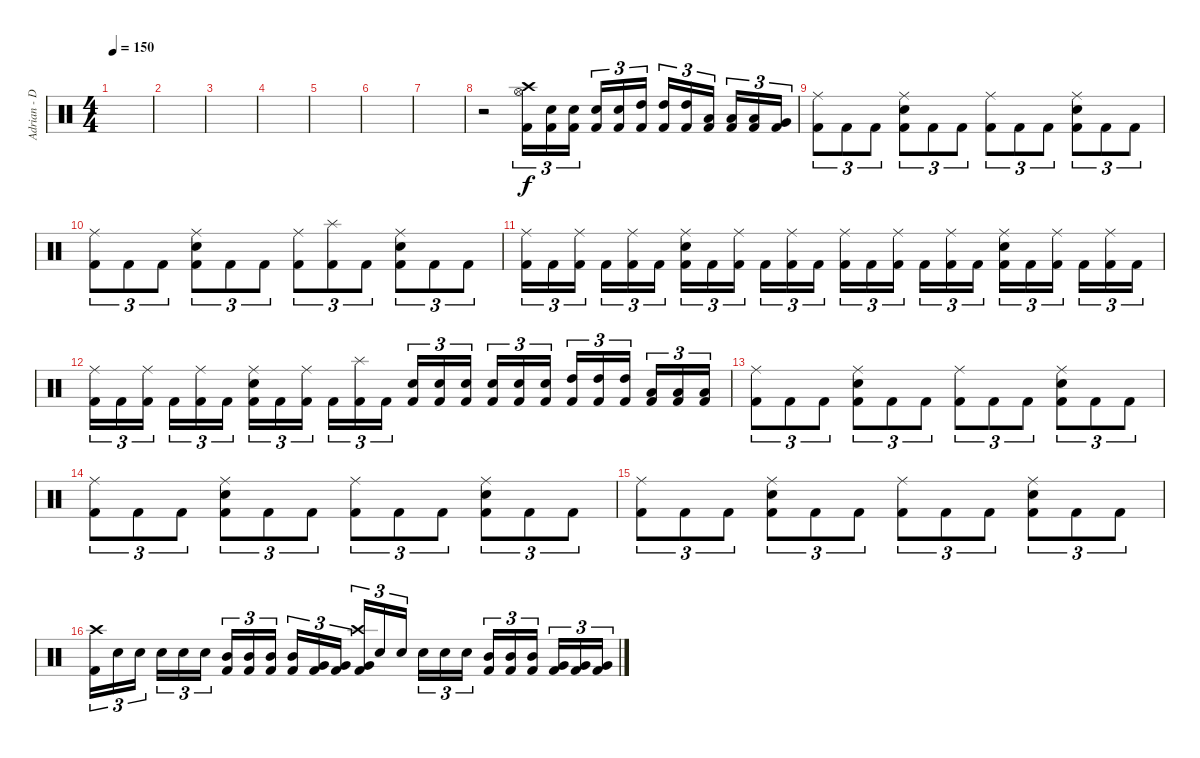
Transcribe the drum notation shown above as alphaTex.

\track ("Adrian - Drums" "Adrian - D") {instrument percussion}
\staff {score}
\articulation defaults
\ts (4 4)
\tempo 150
\clef neutral
\ks c
|
|
|
|
|
|
|
r.2 ("Kick (hit) 2" "Crash high (hit)" "Hi-Hat (open)").16{tu (3 2)} ("Kick (hit) 2" "Electric Snare (hit)").16{tu (3 2)} ("Kick (hit) 2" "Electric Snare (hit)").16{tu (3 2)} ("Kick (hit) 2" "Electric Snare (hit)").16{tu (3 2)} ("Kick (hit) 2" "Electric Snare (hit)").16{tu (3 2)} ("Kick (hit) 2" "High Tom (hit)").16{tu (3 2)} ("Kick (hit) 2" "High Tom (hit)").16{tu (3 2)} ("Kick (hit) 2" "High Tom (hit)").16{tu (3 2)} ("Kick (hit) 2" "Low Tom (hit)").16{tu (3 2)} ("Kick (hit) 2" "Low Tom (hit)").16{tu (3 2)} ("Kick (hit) 2" "Low Tom (hit)").16{tu (3 2)} ("Kick (hit) 2" "Very Low Tom (hit)").16{tu (3 2)} |
("Ride (middle)" "Kick (hit) 2").8{tu (3 2)} "Kick (hit) 2".8{tu (3 2)} "Kick (hit) 2".8{tu (3 2)} ("Ride (middle)" "Electric Snare (hit)" "Kick (hit) 2").8{tu (3 2)} "Kick (hit) 2".8{tu (3 2)} "Kick (hit) 2".8{tu (3 2)} ("Ride (middle)" "Kick (hit) 2").8{tu (3 2)} "Kick (hit) 2".8{tu (3 2)} "Kick (hit) 2".8{tu (3 2)} ("Ride (middle)" "Electric Snare (hit)" "Kick (hit) 2").8{tu (3 2)} "Kick (hit) 2".8{tu (3 2)} "Kick (hit) 2".8{tu (3 2)} |
("Ride (middle)" "Kick (hit) 2").8{tu (3 2)} "Kick (hit) 2".8{tu (3 2)} "Kick (hit) 2".8{tu (3 2)} ("Ride (middle)" "Electric Snare (hit)" "Kick (hit) 2").8{tu (3 2)} "Kick (hit) 2".8{tu (3 2)} "Kick (hit) 2".8{tu (3 2)} ("Ride (middle)" "Kick (hit) 2").8{tu (3 2)} ("Splash (hit)" "Kick (hit) 2").8{tu (3 2)} "Kick (hit) 2".8{tu (3 2)} ("Ride (middle)" "Electric Snare (hit)" "Kick (hit) 2").8{tu (3 2)} "Kick (hit) 2".8{tu (3 2)} "Kick (hit) 2".8{tu (3 2)} |
("Ride (middle)" "Kick (hit) 2").16{tu (3 2)} "Kick (hit) 2".16{tu (3 2)} ("Ride (middle)" "Kick (hit) 2").16{tu (3 2)} "Kick (hit) 2".16{tu (3 2)} ("Ride (middle)" "Kick (hit) 2").16{tu (3 2)} "Kick (hit) 2".16{tu (3 2)} ("Ride (middle)" "Electric Snare (hit)" "Kick (hit) 2").16{tu (3 2)} "Kick (hit) 2".16{tu (3 2)} ("Ride (middle)" "Kick (hit) 2").16{tu (3 2)} "Kick (hit) 2".16{tu (3 2)} ("Ride (middle)" "Kick (hit) 2").16{tu (3 2)} "Kick (hit) 2".16{tu (3 2)} ("Ride (middle)" "Kick (hit) 2").16{tu (3 2)} "Kick (hit) 2".16{tu (3 2)} ("Ride (middle)" "Kick (hit) 2").16{tu (3 2)} "Kick (hit) 2".16{tu (3 2)} ("Ride (middle)" "Kick (hit) 2").16{tu (3 2)} "Kick (hit) 2".16{tu (3 2)} ("Ride (middle)" "Electric Snare (hit)" "Kick (hit) 2").16{tu (3 2)} "Kick (hit) 2".16{tu (3 2)} ("Ride (middle)" "Kick (hit) 2").16{tu (3 2)} "Kick (hit) 2".16{tu (3 2)} ("Ride (middle)" "Kick (hit) 2").16{tu (3 2)} "Kick (hit) 2".16{tu (3 2)} |
("Ride (middle)" "Kick (hit) 2").16{tu (3 2)} "Kick (hit) 2".16{tu (3 2)} ("Ride (middle)" "Kick (hit) 2").16{tu (3 2)} "Kick (hit) 2".16{tu (3 2)} ("Ride (middle)" "Kick (hit) 2").16{tu (3 2)} "Kick (hit) 2".16{tu (3 2)} ("Ride (middle)" "Electric Snare (hit)" "Kick (hit) 2").16{tu (3 2)} "Kick (hit) 2".16{tu (3 2)} ("Ride (middle)" "Kick (hit) 2").16{tu (3 2)} "Kick (hit) 2".16{tu (3 2)} ("Splash (hit)" "Kick (hit) 2").16{tu (3 2)} "Kick (hit) 2".16{tu (3 2)} ("Electric Snare (hit)" "Kick (hit) 2").16{tu (3 2)} ("Electric Snare (hit)" "Kick (hit) 2").16{tu (3 2)} ("Electric Snare (hit)" "Kick (hit) 2").16{tu (3 2)} ("Electric Snare (hit)" "Kick (hit) 2").16{tu (3 2)} ("Electric Snare (hit)" "Kick (hit) 2").16{tu (3 2)} ("Electric Snare (hit)" "Kick (hit) 2").16{tu (3 2)} ("High Tom (hit)" "Kick (hit) 2").16{tu (3 2)} ("High Tom (hit)" "Kick (hit) 2").16{tu (3 2)} ("High Tom (hit)" "Kick (hit) 2").16{tu (3 2)} ("Low Tom (hit)" "Kick (hit) 2").16{tu (3 2)} ("Low Tom (hit)" "Kick (hit) 2").16{tu (3 2)} ("Low Tom (hit)" "Kick (hit) 2").16{tu (3 2)} |
("Ride (middle)" "Kick (hit) 2").8{tu (3 2)} "Kick (hit) 2".8{tu (3 2)} "Kick (hit) 2".8{tu (3 2)} ("Ride (middle)" "Electric Snare (hit)" "Kick (hit) 2").8{tu (3 2)} "Kick (hit) 2".8{tu (3 2)} "Kick (hit) 2".8{tu (3 2)} ("Ride (middle)" "Kick (hit) 2").8{tu (3 2)} "Kick (hit) 2".8{tu (3 2)} "Kick (hit) 2".8{tu (3 2)} ("Ride (middle)" "Electric Snare (hit)" "Kick (hit) 2").8{tu (3 2)} "Kick (hit) 2".8{tu (3 2)} "Kick (hit) 2".8{tu (3 2)} |
("Ride (middle)" "Kick (hit) 2").8{tu (3 2)} "Kick (hit) 2".8{tu (3 2)} "Kick (hit) 2".8{tu (3 2)} ("Ride (middle)" "Electric Snare (hit)" "Kick (hit) 2").8{tu (3 2)} "Kick (hit) 2".8{tu (3 2)} "Kick (hit) 2".8{tu (3 2)} ("Ride (middle)" "Kick (hit) 2").8{tu (3 2)} "Kick (hit) 2".8{tu (3 2)} "Kick (hit) 2".8{tu (3 2)} ("Ride (middle)" "Electric Snare (hit)" "Kick (hit) 2").8{tu (3 2)} "Kick (hit) 2".8{tu (3 2)} "Kick (hit) 2".8{tu (3 2)} |
("Ride (middle)" "Kick (hit) 2").8{tu (3 2)} "Kick (hit) 2".8{tu (3 2)} "Kick (hit) 2".8{tu (3 2)} ("Ride (middle)" "Electric Snare (hit)" "Kick (hit) 2").8{tu (3 2)} "Kick (hit) 2".8{tu (3 2)} "Kick (hit) 2".8{tu (3 2)} ("Ride (middle)" "Kick (hit) 2").8{tu (3 2)} "Kick (hit) 2".8{tu (3 2)} "Kick (hit) 2".8{tu (3 2)} ("Ride (middle)" "Electric Snare (hit)" "Kick (hit) 2").8{tu (3 2)} "Kick (hit) 2".8{tu (3 2)} "Kick (hit) 2".8{tu (3 2)} |
("Crash high (hit)" "Kick (hit) 2").16{tu (3 2)} "Electric Snare (hit)".16{tu (3 2)} "Electric Snare (hit)".16{tu (3 2)} "Electric Snare (hit)".16{tu (3 2)} "Electric Snare (hit)".16{tu (3 2)} "Electric Snare (hit)".16{tu (3 2)} ("Mid Tom (hit)" "Kick (hit) 2").16{tu (3 2)} ("Mid Tom (hit)" "Kick (hit) 2").16{tu (3 2)} ("Mid Tom (hit)" "Kick (hit) 2").16{tu (3 2)} ("Mid Tom (hit)" "Kick (hit) 2").16{tu (3 2)} ("Very Low Tom (hit)" "Kick (hit) 2").16{tu (3 2)} ("Very Low Tom (hit)" "Kick (hit) 2").16{tu (3 2)} ("Crash high (hit)" "Very Low Tom (hit)" "Kick (hit) 2").16{tu (3 2)} "Electric Snare (hit)".16{tu (3 2)} "Electric Snare (hit)".16{tu (3 2)} "Electric Snare (hit)".16{tu (3 2)} "Electric Snare (hit)".16{tu (3 2)} "Electric Snare (hit)".16{tu (3 2)} ("Mid Tom (hit)" "Kick (hit) 2").16{tu (3 2)} ("Mid Tom (hit)" "Kick (hit) 2").16{tu (3 2)} ("Mid Tom (hit)" "Kick (hit) 2").16{tu (3 2)} ("Very Low Tom (hit)" "Kick (hit) 2").16{tu (3 2)} ("Very Low Tom (hit)" "Kick (hit) 2").16{tu (3 2)} ("Very Low Tom (hit)" "Kick (hit) 2").16{tu (3 2)}
